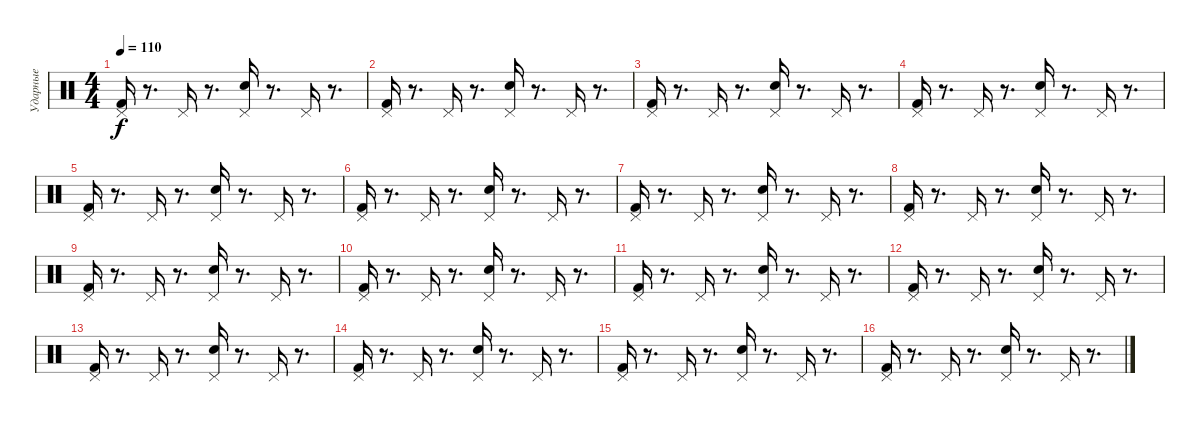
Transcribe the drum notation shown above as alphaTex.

\track ("Ударные" "Ударные") {instrument percussion}
\staff {score}
\articulation defaults
\ts (4 4)
\tempo 110
\clef neutral
\ks c
("Pedal Hi-Hat (hit)" "Kick (hit) 2").16{dy f} r.8{d} "Pedal Hi-Hat (hit)".16 r.8{d} ("Pedal Hi-Hat (hit)" "Electric Snare (hit)").16 r.8{d} "Pedal Hi-Hat (hit)".16 r.8{d} |
("Pedal Hi-Hat (hit)" "Kick (hit) 2").16 r.8{d} "Pedal Hi-Hat (hit)".16 r.8{d} ("Pedal Hi-Hat (hit)" "Electric Snare (hit)").16 r.8{d} "Pedal Hi-Hat (hit)".16 r.8{d} |
("Pedal Hi-Hat (hit)" "Kick (hit) 2").16 r.8{d} "Pedal Hi-Hat (hit)".16 r.8{d} ("Pedal Hi-Hat (hit)" "Electric Snare (hit)").16 r.8{d} "Pedal Hi-Hat (hit)".16 r.8{d} |
("Pedal Hi-Hat (hit)" "Kick (hit) 2").16 r.8{d} "Pedal Hi-Hat (hit)".16 r.8{d} ("Pedal Hi-Hat (hit)" "Electric Snare (hit)").16 r.8{d} "Pedal Hi-Hat (hit)".16 r.8{d} |
("Pedal Hi-Hat (hit)" "Kick (hit) 2").16 r.8{d} "Pedal Hi-Hat (hit)".16 r.8{d} ("Pedal Hi-Hat (hit)" "Electric Snare (hit)").16 r.8{d} "Pedal Hi-Hat (hit)".16 r.8{d} |
("Pedal Hi-Hat (hit)" "Kick (hit) 2").16 r.8{d} "Pedal Hi-Hat (hit)".16 r.8{d} ("Pedal Hi-Hat (hit)" "Electric Snare (hit)").16 r.8{d} "Pedal Hi-Hat (hit)".16 r.8{d} |
("Pedal Hi-Hat (hit)" "Kick (hit) 2").16 r.8{d} "Pedal Hi-Hat (hit)".16 r.8{d} ("Pedal Hi-Hat (hit)" "Electric Snare (hit)").16 r.8{d} "Pedal Hi-Hat (hit)".16 r.8{d} |
("Pedal Hi-Hat (hit)" "Kick (hit) 2").16 r.8{d} "Pedal Hi-Hat (hit)".16 r.8{d} ("Pedal Hi-Hat (hit)" "Electric Snare (hit)").16 r.8{d} "Pedal Hi-Hat (hit)".16 r.8{d} |
("Pedal Hi-Hat (hit)" "Kick (hit) 2").16 r.8{d} "Pedal Hi-Hat (hit)".16 r.8{d} ("Pedal Hi-Hat (hit)" "Electric Snare (hit)").16 r.8{d} "Pedal Hi-Hat (hit)".16 r.8{d} |
("Pedal Hi-Hat (hit)" "Kick (hit) 2").16 r.8{d} "Pedal Hi-Hat (hit)".16 r.8{d} ("Pedal Hi-Hat (hit)" "Electric Snare (hit)").16 r.8{d} "Pedal Hi-Hat (hit)".16 r.8{d} |
("Pedal Hi-Hat (hit)" "Kick (hit) 2").16 r.8{d} "Pedal Hi-Hat (hit)".16 r.8{d} ("Pedal Hi-Hat (hit)" "Electric Snare (hit)").16 r.8{d} "Pedal Hi-Hat (hit)".16 r.8{d} |
("Pedal Hi-Hat (hit)" "Kick (hit) 2").16 r.8{d} "Pedal Hi-Hat (hit)".16 r.8{d} ("Pedal Hi-Hat (hit)" "Electric Snare (hit)").16 r.8{d} "Pedal Hi-Hat (hit)".16 r.8{d} |
("Pedal Hi-Hat (hit)" "Kick (hit) 2").16 r.8{d} "Pedal Hi-Hat (hit)".16 r.8{d} ("Pedal Hi-Hat (hit)" "Electric Snare (hit)").16 r.8{d} "Pedal Hi-Hat (hit)".16 r.8{d} |
("Pedal Hi-Hat (hit)" "Kick (hit) 2").16 r.8{d} "Pedal Hi-Hat (hit)".16 r.8{d} ("Pedal Hi-Hat (hit)" "Electric Snare (hit)").16 r.8{d} "Pedal Hi-Hat (hit)".16 r.8{d} |
("Pedal Hi-Hat (hit)" "Kick (hit) 2").16 r.8{d} "Pedal Hi-Hat (hit)".16 r.8{d} ("Pedal Hi-Hat (hit)" "Electric Snare (hit)").16 r.8{d} "Pedal Hi-Hat (hit)".16 r.8{d} |
("Pedal Hi-Hat (hit)" "Kick (hit) 2").16 r.8{d} "Pedal Hi-Hat (hit)".16 r.8{d} ("Pedal Hi-Hat (hit)" "Electric Snare (hit)").16 r.8{d} "Pedal Hi-Hat (hit)".16 r.8{d}
